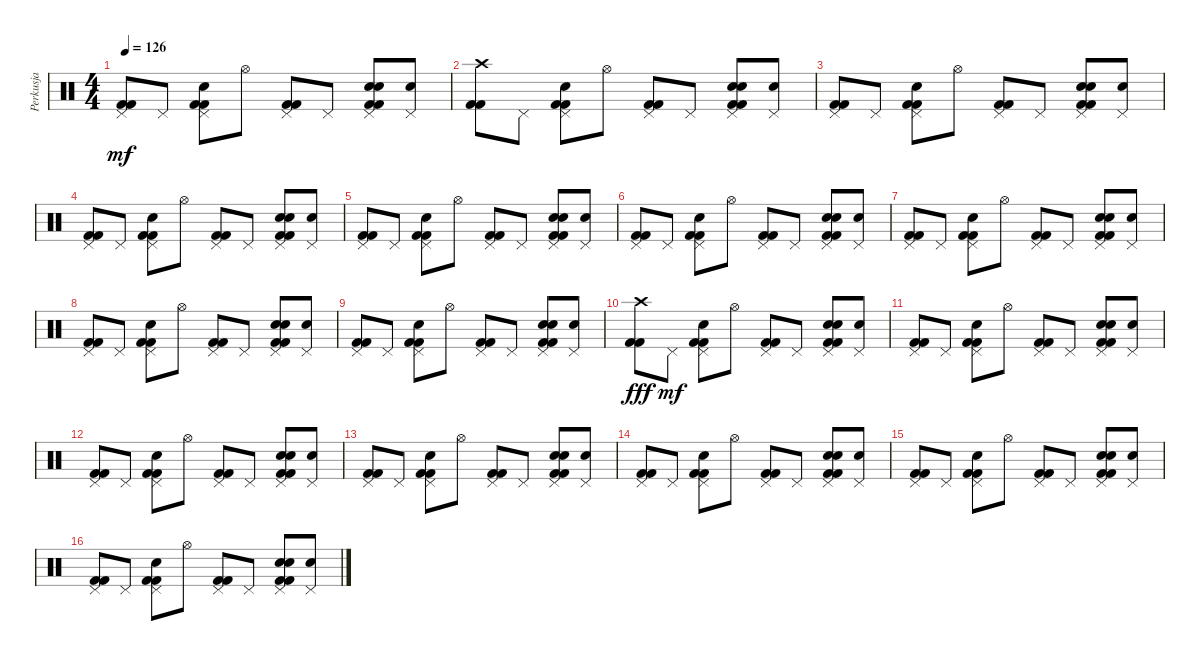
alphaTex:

\track ("Perkusja" "Perkusja") {instrument percussion}
\staff {score}
\articulation defaults
\ts (4 4)
\tempo 126
\clef neutral
\ks c
("Pedal Hi-Hat (hit)" "Kick (hit) 2" "Kick (hit) 2").8{dy mf} "Pedal Hi-Hat (hit)".8 ("Pedal Hi-Hat (hit)" "Snare (hit) 2" "Kick (hit) 2" "Kick (hit) 2").8 "Hi-Hat (open)".8 ("Pedal Hi-Hat (hit)" "Kick (hit) 2" "Kick (hit) 2").8 "Pedal Hi-Hat (hit)".8 ("Pedal Hi-Hat (hit)" "Hand Clap (hit)" "Snare (hit) 2" "Kick (hit) 2" "Kick (hit) 2").8 ("Pedal Hi-Hat (hit)" "Hand Clap (hit)").8 |
("Crash high (hit)" "Kick (hit) 2" "Kick (hit) 2").8 "Pedal Hi-Hat (hit)".8 ("Pedal Hi-Hat (hit)" "Snare (hit) 2" "Kick (hit) 2" "Kick (hit) 2").8 "Hi-Hat (open)".8 ("Pedal Hi-Hat (hit)" "Kick (hit) 2" "Kick (hit) 2").8 "Pedal Hi-Hat (hit)".8 ("Pedal Hi-Hat (hit)" "Hand Clap (hit)" "Snare (hit) 2" "Kick (hit) 2" "Kick (hit) 2").8 ("Pedal Hi-Hat (hit)" "Hand Clap (hit)").8 |
("Pedal Hi-Hat (hit)" "Kick (hit) 2" "Kick (hit) 2").8 "Pedal Hi-Hat (hit)".8 ("Pedal Hi-Hat (hit)" "Snare (hit) 2" "Kick (hit) 2" "Kick (hit) 2").8 "Hi-Hat (open)".8 ("Pedal Hi-Hat (hit)" "Kick (hit) 2" "Kick (hit) 2").8 "Pedal Hi-Hat (hit)".8 ("Pedal Hi-Hat (hit)" "Hand Clap (hit)" "Snare (hit) 2" "Kick (hit) 2" "Kick (hit) 2").8 ("Pedal Hi-Hat (hit)" "Hand Clap (hit)").8 |
("Pedal Hi-Hat (hit)" "Kick (hit) 2" "Kick (hit) 2").8 "Pedal Hi-Hat (hit)".8 ("Pedal Hi-Hat (hit)" "Snare (hit) 2" "Kick (hit) 2" "Kick (hit) 2").8 "Hi-Hat (open)".8 ("Pedal Hi-Hat (hit)" "Kick (hit) 2" "Kick (hit) 2").8 "Pedal Hi-Hat (hit)".8 ("Pedal Hi-Hat (hit)" "Hand Clap (hit)" "Snare (hit) 2" "Kick (hit) 2" "Kick (hit) 2").8 ("Pedal Hi-Hat (hit)" "Hand Clap (hit)").8 |
("Pedal Hi-Hat (hit)" "Kick (hit) 2" "Kick (hit) 2").8 "Pedal Hi-Hat (hit)".8 ("Pedal Hi-Hat (hit)" "Snare (hit) 2" "Kick (hit) 2" "Kick (hit) 2").8 "Hi-Hat (open)".8 ("Pedal Hi-Hat (hit)" "Kick (hit) 2" "Kick (hit) 2").8 "Pedal Hi-Hat (hit)".8 ("Pedal Hi-Hat (hit)" "Hand Clap (hit)" "Snare (hit) 2" "Kick (hit) 2" "Kick (hit) 2").8 ("Pedal Hi-Hat (hit)" "Hand Clap (hit)").8 |
("Pedal Hi-Hat (hit)" "Kick (hit) 2" "Kick (hit) 2").8 "Pedal Hi-Hat (hit)".8 ("Pedal Hi-Hat (hit)" "Snare (hit) 2" "Kick (hit) 2" "Kick (hit) 2").8 "Hi-Hat (open)".8 ("Pedal Hi-Hat (hit)" "Kick (hit) 2" "Kick (hit) 2").8 "Pedal Hi-Hat (hit)".8 ("Pedal Hi-Hat (hit)" "Hand Clap (hit)" "Snare (hit) 2" "Kick (hit) 2" "Kick (hit) 2").8 ("Pedal Hi-Hat (hit)" "Hand Clap (hit)").8 |
("Pedal Hi-Hat (hit)" "Kick (hit) 2" "Kick (hit) 2").8 "Pedal Hi-Hat (hit)".8 ("Pedal Hi-Hat (hit)" "Snare (hit) 2" "Kick (hit) 2" "Kick (hit) 2").8 "Hi-Hat (open)".8 ("Pedal Hi-Hat (hit)" "Kick (hit) 2" "Kick (hit) 2").8 "Pedal Hi-Hat (hit)".8 ("Pedal Hi-Hat (hit)" "Hand Clap (hit)" "Snare (hit) 2" "Kick (hit) 2" "Kick (hit) 2").8 ("Pedal Hi-Hat (hit)" "Hand Clap (hit)").8 |
("Pedal Hi-Hat (hit)" "Kick (hit) 2" "Kick (hit) 2").8 "Pedal Hi-Hat (hit)".8 ("Pedal Hi-Hat (hit)" "Snare (hit) 2" "Kick (hit) 2" "Kick (hit) 2").8 "Hi-Hat (open)".8 ("Pedal Hi-Hat (hit)" "Kick (hit) 2" "Kick (hit) 2").8 "Pedal Hi-Hat (hit)".8 ("Pedal Hi-Hat (hit)" "Hand Clap (hit)" "Snare (hit) 2" "Kick (hit) 2" "Kick (hit) 2").8 ("Pedal Hi-Hat (hit)" "Hand Clap (hit)").8 |
("Pedal Hi-Hat (hit)" "Kick (hit) 2" "Kick (hit) 2").8 "Pedal Hi-Hat (hit)".8 ("Pedal Hi-Hat (hit)" "Snare (hit) 2" "Kick (hit) 2" "Kick (hit) 2").8 "Hi-Hat (open)".8 ("Pedal Hi-Hat (hit)" "Kick (hit) 2" "Kick (hit) 2").8 "Pedal Hi-Hat (hit)".8 ("Pedal Hi-Hat (hit)" "Hand Clap (hit)" "Snare (hit) 2" "Kick (hit) 2" "Kick (hit) 2").8 ("Pedal Hi-Hat (hit)" "Hand Clap (hit)").8 |
("Crash high (hit)" "Kick (hit) 2" "Kick (hit) 2").8{dy fff} "Pedal Hi-Hat (hit)".8{dy mf} ("Pedal Hi-Hat (hit)" "Snare (hit) 2" "Kick (hit) 2" "Kick (hit) 2").8 "Hi-Hat (open)".8 ("Pedal Hi-Hat (hit)" "Kick (hit) 2" "Kick (hit) 2").8 "Pedal Hi-Hat (hit)".8 ("Pedal Hi-Hat (hit)" "Hand Clap (hit)" "Snare (hit) 2" "Kick (hit) 2" "Kick (hit) 2").8 ("Pedal Hi-Hat (hit)" "Hand Clap (hit)").8 |
("Pedal Hi-Hat (hit)" "Kick (hit) 2" "Kick (hit) 2").8 "Pedal Hi-Hat (hit)".8 ("Pedal Hi-Hat (hit)" "Snare (hit) 2" "Kick (hit) 2" "Kick (hit) 2").8 "Hi-Hat (open)".8 ("Pedal Hi-Hat (hit)" "Kick (hit) 2" "Kick (hit) 2").8 "Pedal Hi-Hat (hit)".8 ("Pedal Hi-Hat (hit)" "Hand Clap (hit)" "Snare (hit) 2" "Kick (hit) 2" "Kick (hit) 2").8 ("Pedal Hi-Hat (hit)" "Hand Clap (hit)").8 |
("Pedal Hi-Hat (hit)" "Kick (hit) 2" "Kick (hit) 2").8 "Pedal Hi-Hat (hit)".8 ("Pedal Hi-Hat (hit)" "Snare (hit) 2" "Kick (hit) 2" "Kick (hit) 2").8 "Hi-Hat (open)".8 ("Pedal Hi-Hat (hit)" "Kick (hit) 2" "Kick (hit) 2").8 "Pedal Hi-Hat (hit)".8 ("Pedal Hi-Hat (hit)" "Hand Clap (hit)" "Snare (hit) 2" "Kick (hit) 2" "Kick (hit) 2").8 ("Pedal Hi-Hat (hit)" "Hand Clap (hit)").8 |
("Pedal Hi-Hat (hit)" "Kick (hit) 2" "Kick (hit) 2").8 "Pedal Hi-Hat (hit)".8 ("Pedal Hi-Hat (hit)" "Snare (hit) 2" "Kick (hit) 2" "Kick (hit) 2").8 "Hi-Hat (open)".8 ("Pedal Hi-Hat (hit)" "Kick (hit) 2" "Kick (hit) 2").8 "Pedal Hi-Hat (hit)".8 ("Pedal Hi-Hat (hit)" "Hand Clap (hit)" "Snare (hit) 2" "Kick (hit) 2" "Kick (hit) 2").8 ("Pedal Hi-Hat (hit)" "Hand Clap (hit)").8 |
("Pedal Hi-Hat (hit)" "Kick (hit) 2" "Kick (hit) 2").8 "Pedal Hi-Hat (hit)".8 ("Pedal Hi-Hat (hit)" "Snare (hit) 2" "Kick (hit) 2" "Kick (hit) 2").8 "Hi-Hat (open)".8 ("Pedal Hi-Hat (hit)" "Kick (hit) 2" "Kick (hit) 2").8 "Pedal Hi-Hat (hit)".8 ("Pedal Hi-Hat (hit)" "Hand Clap (hit)" "Snare (hit) 2" "Kick (hit) 2" "Kick (hit) 2").8 ("Pedal Hi-Hat (hit)" "Hand Clap (hit)").8 |
("Pedal Hi-Hat (hit)" "Kick (hit) 2" "Kick (hit) 2").8 "Pedal Hi-Hat (hit)".8 ("Pedal Hi-Hat (hit)" "Snare (hit) 2" "Kick (hit) 2" "Kick (hit) 2").8 "Hi-Hat (open)".8 ("Pedal Hi-Hat (hit)" "Kick (hit) 2" "Kick (hit) 2").8 "Pedal Hi-Hat (hit)".8 ("Pedal Hi-Hat (hit)" "Hand Clap (hit)" "Snare (hit) 2" "Kick (hit) 2" "Kick (hit) 2").8 ("Pedal Hi-Hat (hit)" "Hand Clap (hit)").8 |
("Pedal Hi-Hat (hit)" "Kick (hit) 2" "Kick (hit) 2").8 "Pedal Hi-Hat (hit)".8 ("Pedal Hi-Hat (hit)" "Snare (hit) 2" "Kick (hit) 2" "Kick (hit) 2").8 "Hi-Hat (open)".8 ("Pedal Hi-Hat (hit)" "Kick (hit) 2" "Kick (hit) 2").8 "Pedal Hi-Hat (hit)".8 ("Pedal Hi-Hat (hit)" "Hand Clap (hit)" "Snare (hit) 2" "Kick (hit) 2" "Kick (hit) 2").8 ("Pedal Hi-Hat (hit)" "Hand Clap (hit)").8
